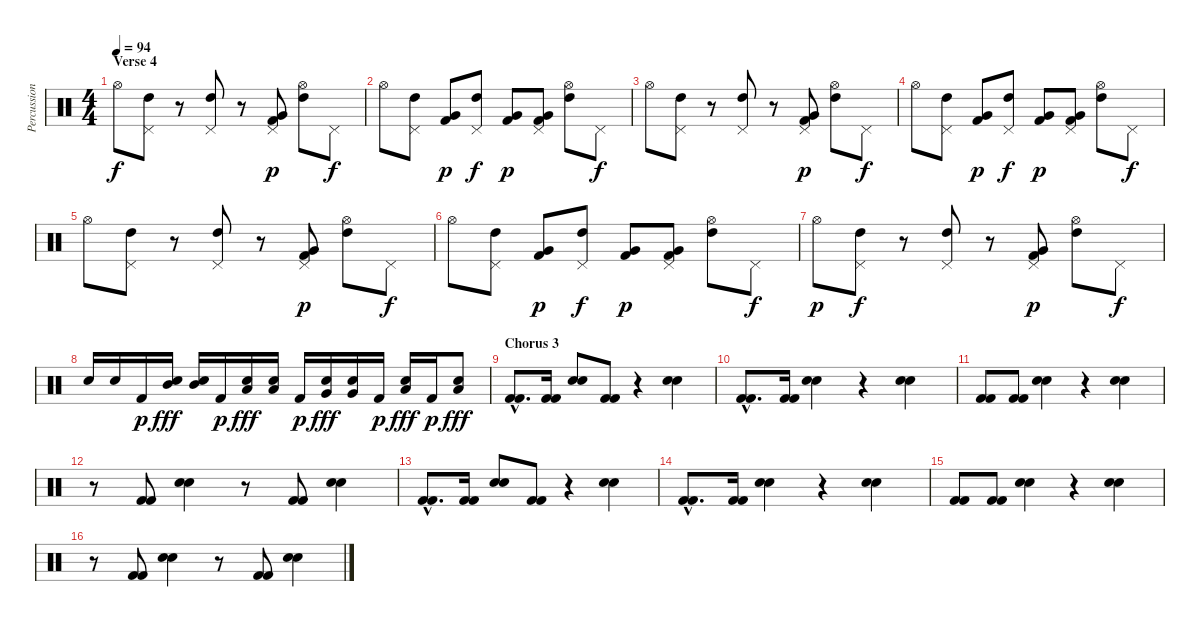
\track ("Percussion" "Percussion") {instrument percussion}
\staff {score}
\articulation defaults
\ts (4 4)
\section ("" "Verse 4")
\tempo 94
\clef neutral
\ks c "Hi-Hat (open)".8{dy f}
("Pedal Hi-Hat (hit)" "High Tom (hit)").8 r.8 ("Pedal Hi-Hat (hit)" "High Tom (hit)").8 r.8 ("Pedal Hi-Hat (hit)" "Very Low Tom (hit)" "Kick (hit) 2").8{dy p} ("Hi-Hat (open)" "High Tom (hit)").8 "Pedal Hi-Hat (hit)".8{dy f} |
"Hi-Hat (open)".8 ("Pedal Hi-Hat (hit)" "High Tom (hit)").8 ("Very Low Tom (hit)" "Kick (hit) 2").8{dy p} ("Pedal Hi-Hat (hit)" "High Tom (hit)").8{dy f} ("Very Low Tom (hit)" "Kick (hit) 2").8{dy p} ("Pedal Hi-Hat (hit)" "Very Low Tom (hit)" "Kick (hit) 2").8 ("Hi-Hat (open)" "High Tom (hit)").8 "Pedal Hi-Hat (hit)".8{dy f} |
"Hi-Hat (open)".8 ("Pedal Hi-Hat (hit)" "High Tom (hit)").8 r.8 ("Pedal Hi-Hat (hit)" "High Tom (hit)").8 r.8 ("Pedal Hi-Hat (hit)" "Very Low Tom (hit)" "Kick (hit) 2").8{dy p} ("Hi-Hat (open)" "High Tom (hit)").8 "Pedal Hi-Hat (hit)".8{dy f} |
"Hi-Hat (open)".8 ("Pedal Hi-Hat (hit)" "High Tom (hit)").8 ("Very Low Tom (hit)" "Kick (hit) 2").8{dy p} ("Pedal Hi-Hat (hit)" "High Tom (hit)").8{dy f} ("Very Low Tom (hit)" "Kick (hit) 2").8{dy p} ("Pedal Hi-Hat (hit)" "Very Low Tom (hit)" "Kick (hit) 2").8 ("Hi-Hat (open)" "High Tom (hit)").8 "Pedal Hi-Hat (hit)".8{dy f} |
"Hi-Hat (open)".8 ("Pedal Hi-Hat (hit)" "High Tom (hit)").8 r.8 ("Pedal Hi-Hat (hit)" "High Tom (hit)").8 r.8 ("Pedal Hi-Hat (hit)" "Very Low Tom (hit)" "Kick (hit) 2").8{dy p} ("Hi-Hat (open)" "High Tom (hit)").8 "Pedal Hi-Hat (hit)".8{dy f} |
"Hi-Hat (open)".8 ("Pedal Hi-Hat (hit)" "High Tom (hit)").8 ("Very Low Tom (hit)" "Kick (hit) 2").8{dy p} ("Pedal Hi-Hat (hit)" "High Tom (hit)").8{dy f} ("Very Low Tom (hit)" "Kick (hit) 2").8{dy p} ("Pedal Hi-Hat (hit)" "Very Low Tom (hit)" "Kick (hit) 2").8 ("Hi-Hat (open)" "High Tom (hit)").8 "Pedal Hi-Hat (hit)".8{dy f} |
"Hi-Hat (open)".8{dy p} ("Pedal Hi-Hat (hit)" "High Tom (hit)").8{dy f} r.8 ("Pedal Hi-Hat (hit)" "High Tom (hit)").8 r.8 ("Pedal Hi-Hat (hit)" "Very Low Tom (hit)" "Kick (hit) 2").8{dy p} ("Hi-Hat (open)" "High Tom (hit)").8 "Pedal Hi-Hat (hit)".8{dy f} |
"Electric Snare (hit)".16{volume 16} "Electric Snare (hit)".16 "Kick (hit) 2".16{dy p} ("Electric Snare (hit)" "Mid Tom (hit)").16{dy fff} ("Electric Snare (hit)" "Mid Tom (hit)").16 "Kick (hit) 2".16{dy p} ("Electric Snare (hit)" "Low Tom (hit)").16{dy fff} ("Electric Snare (hit)" "Low Tom (hit)").16 "Kick (hit) 2".16{dy p} ("Electric Snare (hit)" "Very Low Tom (hit)").16{dy fff} ("Electric Snare (hit)" "Very Low Tom (hit)").16 "Kick (hit) 2".16{dy p} ("Electric Snare (hit)" "Low Floor Tom (hit)").16{dy fff} "Kick (hit) 2".16{dy p} ("Electric Snare (hit)" "Low Floor Tom (hit)").8{dy fff} |
\section ("" "Chorus 3")
("Kick (hit) 2"{hac} "Kick (hit) 2"{hac}).8{d volume 16} ("Kick (hit) 2" "Kick (hit) 2").16 ("Snare (hit) 2" "Snare (hit) 2").8 ("Kick (hit) 2" "Kick (hit) 2").8 r.4 ("Snare (hit) 2" "Snare (hit) 2").4 |
("Kick (hit) 2"{hac} "Kick (hit) 2"{hac}).8{d volume 16} ("Kick (hit) 2" "Kick (hit) 2").16 ("Snare (hit) 2" "Snare (hit) 2").4 r.4 ("Snare (hit) 2" "Snare (hit) 2").4 |
("Kick (hit) 2" "Kick (hit) 2").8{volume 16} ("Kick (hit) 2" "Kick (hit) 2").8 ("Snare (hit) 2" "Snare (hit) 2").4 r.4 ("Snare (hit) 2" "Snare (hit) 2").4 |
r.8{volume 16} ("Kick (hit) 2" "Kick (hit) 2").8 ("Snare (hit) 2" "Snare (hit) 2").4 r.8 ("Kick (hit) 2" "Kick (hit) 2").8 ("Snare (hit) 2" "Snare (hit) 2").4 |
("Kick (hit) 2"{hac} "Kick (hit) 2"{hac}).8{d volume 16} ("Kick (hit) 2" "Kick (hit) 2").16 ("Snare (hit) 2" "Snare (hit) 2").8 ("Kick (hit) 2" "Kick (hit) 2").8 r.4 ("Snare (hit) 2" "Snare (hit) 2").4 |
("Kick (hit) 2"{hac} "Kick (hit) 2"{hac}).8{d volume 16} ("Kick (hit) 2" "Kick (hit) 2").16 ("Snare (hit) 2" "Snare (hit) 2").4 r.4 ("Snare (hit) 2" "Snare (hit) 2").4 |
("Kick (hit) 2" "Kick (hit) 2").8{volume 16} ("Kick (hit) 2" "Kick (hit) 2").8 ("Snare (hit) 2" "Snare (hit) 2").4 r.4 ("Snare (hit) 2" "Snare (hit) 2").4 |
r.8{volume 16} ("Kick (hit) 2" "Kick (hit) 2").8 ("Snare (hit) 2" "Snare (hit) 2").4 r.8 ("Kick (hit) 2" "Kick (hit) 2").8 ("Snare (hit) 2" "Snare (hit) 2").4
